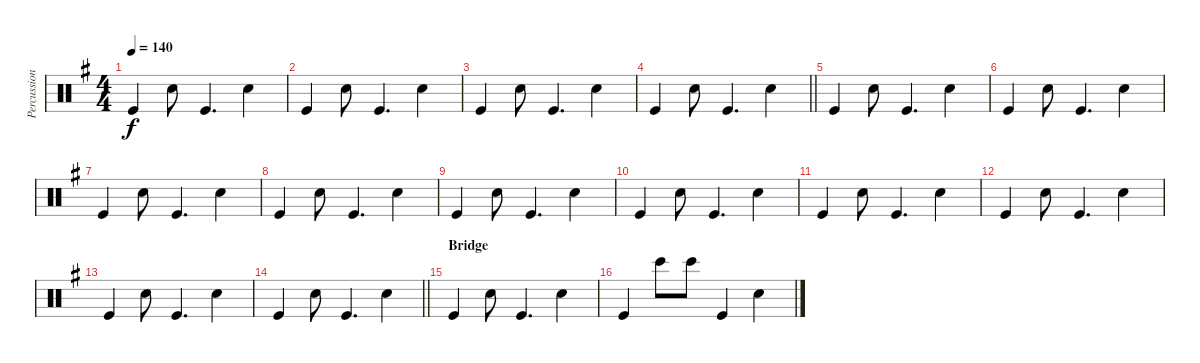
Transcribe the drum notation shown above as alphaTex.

\track ("Percussion" "Percussion") {instrument percussion}
\staff {score}
\articulation defaults
\ts (4 4)
\tempo 140
\clef neutral
\ks g "Kick (hit)".4{dy f} "Electric Snare (hit)".8 "Kick (hit)".4{d} "Electric Snare (hit)".4
|
"Kick (hit)".4 "Electric Snare (hit)".8 "Kick (hit)".4{d} "Electric Snare (hit)".4 |
"Kick (hit)".4 "Electric Snare (hit)".8 "Kick (hit)".4{d} "Electric Snare (hit)".4 |
\barLineRight lightlight "Kick (hit)".4 "Electric Snare (hit)".8 "Kick (hit)".4{d} "Electric Snare (hit)".4
|
"Kick (hit)".4 "Electric Snare (hit)".8 "Kick (hit)".4{d} "Electric Snare (hit)".4 |
"Kick (hit)".4 "Electric Snare (hit)".8 "Kick (hit)".4{d} "Electric Snare (hit)".4 |
"Kick (hit)".4 "Electric Snare (hit)".8 "Kick (hit)".4{d} "Electric Snare (hit)".4 |
"Kick (hit)".4 "Electric Snare (hit)".8 "Kick (hit)".4{d} "Electric Snare (hit)".4 |
"Kick (hit)".4 "Electric Snare (hit)".8 "Kick (hit)".4{d} "Electric Snare (hit)".4 |
"Kick (hit)".4 "Electric Snare (hit)".8 "Kick (hit)".4{d} "Electric Snare (hit)".4 |
"Kick (hit)".4 "Electric Snare (hit)".8 "Kick (hit)".4{d} "Electric Snare (hit)".4 |
"Kick (hit)".4 "Electric Snare (hit)".8 "Kick (hit)".4{d} "Electric Snare (hit)".4 |
"Kick (hit)".4 "Electric Snare (hit)".8 "Kick (hit)".4{d} "Electric Snare (hit)".4 |
\barLineRight lightlight "Kick (hit)".4 "Electric Snare (hit)".8 "Kick (hit)".4{d} "Electric Snare (hit)".4
|
\section ("" "Bridge")
"Kick (hit)".4 "Electric Snare (hit)".8 "Kick (hit)".4{d} "Electric Snare (hit)".4 |
"Kick (hit)".4 "Bongo High (hit)".8 "Bongo High (hit)".8 "Kick (hit)".4 "Electric Snare (hit)".4
